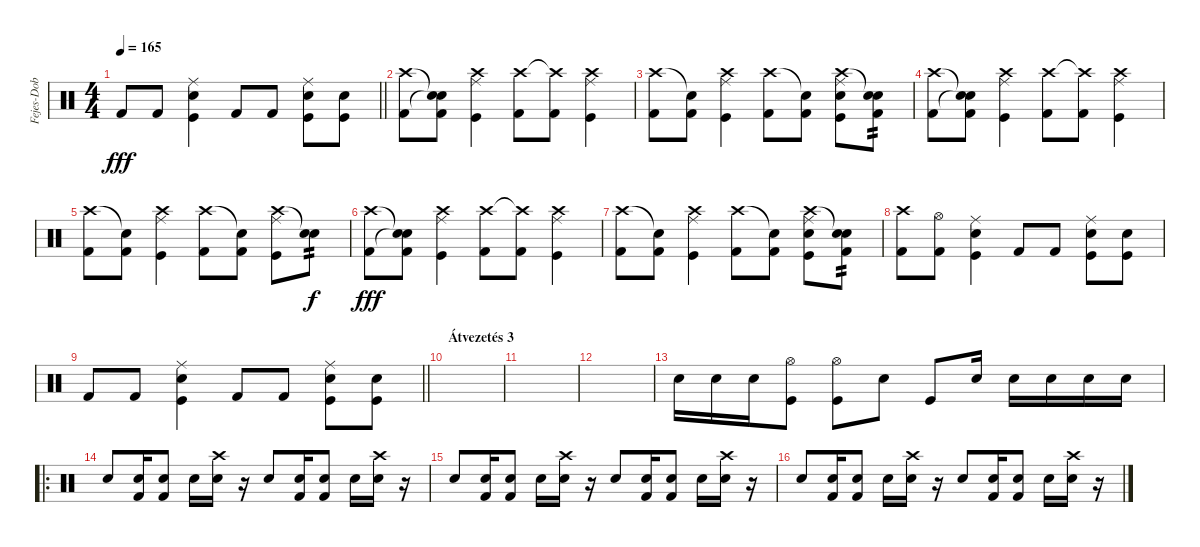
\track ("Fejes-Dob" "Fejes-Dob") {instrument percussion}
\staff {score}
\articulation defaults
\ts (4 4)
\tempo 165
\clef neutral
\barLineRight lightlight
\ks c "Kick (hit) 2".8{dy fff} "Kick (hit) 2".8
("Ride (middle)" "Snare (hit) 2" "Kick (hit)").4 "Kick (hit) 2".8 "Kick (hit) 2".8 ("Ride (middle)" "Snare (hit) 2" "Kick (hit)").8 ("Snare (hit) 2" "Kick (hit)").8 |
("Crash high (hit)" "Kick (hit) 2").8 ("Snare (hit)"{t} "Snare (hit)"{t} "Kick (hit) 2").8 ("Crash high (hit)" "Ride (middle)" "Kick (hit)").4 ("Crash high (hit)" "Kick (hit) 2").8 ("Crash high (hit)"{t} "Kick (hit) 2").8 ("Crash high (hit)" "Ride (middle)" "Kick (hit)").4 |
("Crash high (hit)" "Kick (hit) 2").8 ("Snare (hit)"{t} "Kick (hit) 2").8 ("Crash high (hit)" "Ride (middle)" "Kick (hit)").4 ("Crash high (hit)" "Kick (hit) 2").8 ("Snare (hit)"{t} "Kick (hit) 2").8 ("Crash high (hit)" "Ride (middle)" "Electric Snare (hit)" "Kick (hit)").8 ("Snare (hit)"{t} "Electric Snare (hit)" "Kick (hit) 2").8{tp 2} |
("Crash high (hit)" "Kick (hit) 2").8 ("Snare (hit)"{t} "Snare (hit)"{t} "Kick (hit) 2").8 ("Crash high (hit)" "Ride (middle)" "Kick (hit)").4 ("Crash high (hit)" "Kick (hit) 2").8 ("Crash high (hit)"{t} "Kick (hit) 2").8 ("Crash high (hit)" "Ride (middle)" "Kick (hit)").4 |
("Crash high (hit)" "Kick (hit) 2").8 ("Snare (hit)"{t} "Kick (hit) 2").8 ("Crash high (hit)" "Ride (middle)" "Kick (hit)").4 ("Crash high (hit)" "Kick (hit) 2").8 ("Snare (hit)"{t} "Kick (hit) 2").8 ("Crash high (hit)" "Ride (middle)" "Kick (hit)").8 ("Snare (hit)"{t} "Electric Snare (hit)").8{tp 2 dy f} |
("Crash high (hit)" "Kick (hit) 2").8{dy fff} ("Snare (hit)"{t} "Snare (hit)"{t} "Kick (hit) 2").8 ("Crash high (hit)" "Ride (middle)" "Kick (hit)").4 ("Crash high (hit)" "Kick (hit) 2").8 ("Crash high (hit)"{t} "Kick (hit) 2").8 ("Crash high (hit)" "Ride (middle)" "Kick (hit)").4 |
("Crash high (hit)" "Kick (hit) 2").8 ("Snare (hit)"{t} "Kick (hit) 2").8 ("Crash high (hit)" "Ride (middle)" "Kick (hit)").4 ("Crash high (hit)" "Kick (hit) 2").8 ("Snare (hit)"{t} "Kick (hit) 2").8 ("Crash high (hit)" "Ride (middle)" "Electric Snare (hit)" "Kick (hit)").8 ("Snare (hit)"{t} "Electric Snare (hit)" "Kick (hit) 2").8{tp 2} |
("Crash high (hit)" "Kick (hit) 2").8 ("Hi-Hat (open)" "Kick (hit) 2").8 ("Ride (middle)" "Snare (hit) 2" "Kick (hit)").4 "Kick (hit) 2".8 "Kick (hit) 2".8 ("Ride (middle)" "Snare (hit) 2" "Kick (hit)").8 ("Snare (hit) 2" "Kick (hit)").8 |
\barLineRight lightlight "Kick (hit) 2".8 "Kick (hit) 2".8
("Ride (middle)" "Snare (hit) 2" "Kick (hit)").4 "Kick (hit) 2".8 "Kick (hit) 2".8 ("Ride (middle)" "Snare (hit) 2" "Kick (hit)").8 ("Snare (hit) 2" "Kick (hit)").8 |
\section ("" "Átvezetés 3")
|
|
|
"Snare (hit) 2".16 "Snare (hit) 2".16 "Snare (hit) 2".16 ("Hi-Hat (open)" "Kick (hit)").8 ("Hi-Hat (open)" "Kick (hit)").8 "Snare (hit) 2".8 "Kick (hit)".8 "Snare (hit) 2".16 "Electric Snare (hit)".16 "Electric Snare (hit)".16 "Electric Snare (hit)".16 "Electric Snare (hit)".16 |
\ro "Snare (hit) 2".8
("Kick (hit) 2" "Snare (hit) 2").16 ("Kick (hit) 2" "Snare (hit) 2").8 "Snare (hit) 2".16 ("Crash high (hit)" "Snare (hit) 2").16 r.16 "Snare (hit) 2".8 ("Kick (hit) 2" "Snare (hit) 2").16 ("Kick (hit) 2" "Snare (hit) 2").8 "Snare (hit) 2".16 ("Crash high (hit)" "Snare (hit) 2").16 r.16 |
"Snare (hit) 2".8 ("Kick (hit) 2" "Snare (hit) 2").16 ("Kick (hit) 2" "Snare (hit) 2").8 "Snare (hit) 2".16 ("Crash high (hit)" "Snare (hit) 2").16 r.16 "Snare (hit) 2".8 ("Kick (hit) 2" "Snare (hit) 2").16 ("Kick (hit) 2" "Snare (hit) 2").8 "Snare (hit) 2".16 ("Crash high (hit)" "Snare (hit) 2").16 r.16 |
"Snare (hit) 2".8 ("Kick (hit) 2" "Snare (hit) 2").16 ("Kick (hit) 2" "Snare (hit) 2").8 "Snare (hit) 2".16 ("Crash high (hit)" "Snare (hit) 2").16 r.16 "Snare (hit) 2".8 ("Kick (hit) 2" "Snare (hit) 2").16 ("Kick (hit) 2" "Snare (hit) 2").8 "Snare (hit) 2".16 ("Crash high (hit)" "Snare (hit) 2").16 r.16
